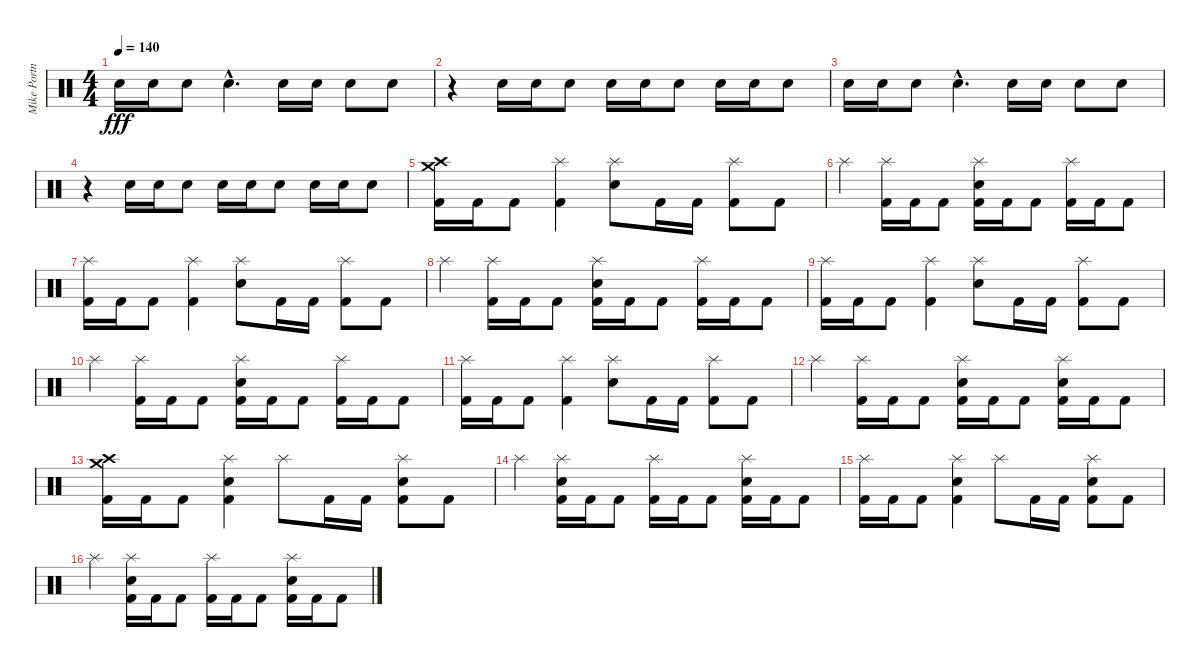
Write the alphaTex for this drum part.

\track ("Mike Portnoy" "Mike Portn") {instrument percussion}
\staff {score}
\articulation defaults
\ts (4 4)
\tempo 140
\clef neutral
\ks c "Snare (hit) 2".16{dy fff} "Snare (hit) 2".16 "Snare (hit) 2".8 "Snare (hit) 2"{hac}.4{d} "Snare (hit) 2".16 "Snare (hit) 2".16 "Snare (hit) 2".8 "Snare (hit) 2".8
|
r.4 "Snare (hit) 2".16 "Snare (hit) 2".16 "Snare (hit) 2".8 "Snare (hit) 2".16 "Snare (hit) 2".16 "Snare (hit) 2".8 "Snare (hit) 2".16 "Snare (hit) 2".16 "Snare (hit) 2".8 |
"Snare (hit) 2".16 "Snare (hit) 2".16 "Snare (hit) 2".8 "Snare (hit) 2"{hac}.4{d} "Snare (hit) 2".16 "Snare (hit) 2".16 "Snare (hit) 2".8 "Snare (hit) 2".8 |
r.4 "Snare (hit) 2".16 "Snare (hit) 2".16 "Snare (hit) 2".8 "Snare (hit) 2".16 "Snare (hit) 2".16 "Snare (hit) 2".8 "Snare (hit) 2".16 "Snare (hit) 2".16 "Snare (hit) 2".8 |
("Crash medium (hit)" "Crash high (hit)" "Kick (hit) 2").16 "Kick (hit) 2".16 "Kick (hit) 2".8 ("Splash (hit)" "Kick (hit) 2").4 ("Splash (hit)" "Snare (hit) 2").8 "Kick (hit) 2".16 "Kick (hit) 2".16 ("Splash (hit)" "Kick (hit) 2").8 "Kick (hit) 2".8 |
"Splash (hit)".4 ("Splash (hit)" "Kick (hit) 2").16 "Kick (hit) 2".16 "Kick (hit) 2".8 ("Splash (hit)" "Snare (hit) 2" "Kick (hit) 2").16 "Kick (hit) 2".16 "Kick (hit) 2".8 ("Splash (hit)" "Kick (hit) 2").16 "Kick (hit) 2".16 "Kick (hit) 2".8 |
("Splash (hit)" "Kick (hit) 2").16 "Kick (hit) 2".16 "Kick (hit) 2".8 ("Splash (hit)" "Kick (hit) 2").4 ("Splash (hit)" "Snare (hit) 2").8 "Kick (hit) 2".16 "Kick (hit) 2".16 ("Splash (hit)" "Kick (hit) 2").8 "Kick (hit) 2".8 |
"Splash (hit)".4 ("Splash (hit)" "Kick (hit) 2").16 "Kick (hit) 2".16 "Kick (hit) 2".8 ("Splash (hit)" "Snare (hit) 2" "Kick (hit) 2").16 "Kick (hit) 2".16 "Kick (hit) 2".8 ("Splash (hit)" "Kick (hit) 2").16 "Kick (hit) 2".16 "Kick (hit) 2".8 |
("Splash (hit)" "Kick (hit) 2").16 "Kick (hit) 2".16 "Kick (hit) 2".8 ("Splash (hit)" "Kick (hit) 2").4 ("Splash (hit)" "Snare (hit) 2").8 "Kick (hit) 2".16 "Kick (hit) 2".16 ("Splash (hit)" "Kick (hit) 2").8 "Kick (hit) 2".8 |
"Splash (hit)".4 ("Splash (hit)" "Kick (hit) 2").16 "Kick (hit) 2".16 "Kick (hit) 2".8 ("Splash (hit)" "Snare (hit) 2" "Kick (hit) 2").16 "Kick (hit) 2".16 "Kick (hit) 2".8 ("Splash (hit)" "Kick (hit) 2").16 "Kick (hit) 2".16 "Kick (hit) 2".8 |
("Splash (hit)" "Kick (hit) 2").16 "Kick (hit) 2".16 "Kick (hit) 2".8 ("Splash (hit)" "Kick (hit) 2").4 ("Splash (hit)" "Snare (hit) 2").8 "Kick (hit) 2".16 "Kick (hit) 2".16 ("Splash (hit)" "Kick (hit) 2").8 "Kick (hit) 2".8 |
"Splash (hit)".4 ("Splash (hit)" "Kick (hit) 2").16 "Kick (hit) 2".16 "Kick (hit) 2".8 ("Splash (hit)" "Snare (hit) 2" "Kick (hit) 2").16 "Kick (hit) 2".16 "Kick (hit) 2".8 ("Splash (hit)" "Snare (hit) 2" "Kick (hit) 2").16 "Kick (hit) 2".16 "Kick (hit) 2".8 |
("Crash high (hit)" "Crash medium (hit)" "Kick (hit) 2").16 "Kick (hit) 2".16 "Kick (hit) 2".8 ("Splash (hit)" "Snare (hit) 2" "Kick (hit) 2").4 "Splash (hit)".8 "Kick (hit) 2".16 "Kick (hit) 2".16 ("Splash (hit)" "Snare (hit) 2" "Kick (hit) 2").8 "Kick (hit) 2".8 |
"Splash (hit)".4 ("Splash (hit)" "Snare (hit) 2" "Kick (hit) 2").16 "Kick (hit) 2".16 "Kick (hit) 2".8 ("Splash (hit)" "Kick (hit) 2").16 "Kick (hit) 2".16 "Kick (hit) 2".8 ("Splash (hit)" "Snare (hit) 2" "Kick (hit) 2").16 "Kick (hit) 2".16 "Kick (hit) 2".8 |
("Splash (hit)" "Kick (hit) 2").16 "Kick (hit) 2".16 "Kick (hit) 2".8 ("Splash (hit)" "Snare (hit) 2" "Kick (hit) 2").4 "Splash (hit)".8 "Kick (hit) 2".16 "Kick (hit) 2".16 ("Splash (hit)" "Snare (hit) 2" "Kick (hit) 2").8 "Kick (hit) 2".8 |
"Splash (hit)".4 ("Splash (hit)" "Snare (hit) 2" "Kick (hit) 2").16 "Kick (hit) 2".16 "Kick (hit) 2".8 ("Splash (hit)" "Kick (hit) 2").16 "Kick (hit) 2".16 "Kick (hit) 2".8 ("Splash (hit)" "Snare (hit) 2" "Kick (hit) 2").16 "Kick (hit) 2".16 "Kick (hit) 2".8
